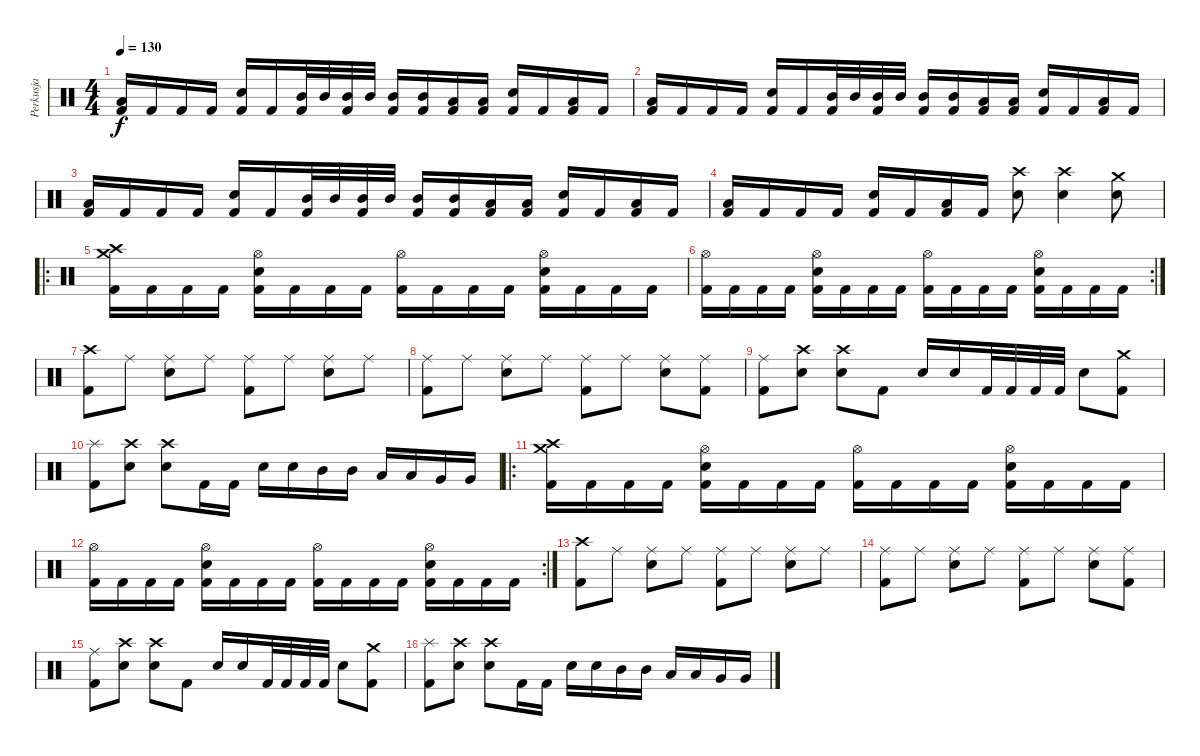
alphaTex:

\track ("Perkusja" "Perkusja") {instrument percussion}
\staff {score}
\articulation defaults
\ts (4 4)
\tempo 130
\clef neutral
\ks c
("Kick (hit) 2" "Low Floor Tom (hit)").16{dy f} "Kick (hit) 2".16 "Kick (hit) 2".16 "Kick (hit) 2".16 ("Kick (hit) 2" "Snare (hit) 2").16 "Kick (hit) 2".16 ("Kick (hit) 2" "Mid Tom (hit)").32 "Mid Tom (hit)".32 ("Kick (hit) 2" "Mid Tom (hit)").32 "Mid Tom (hit)".32 ("Kick (hit) 2" "Mid Tom (hit)").16 ("Kick (hit) 2" "Mid Tom (hit)").16 ("Kick (hit) 2" "Low Tom (hit)").16 ("Kick (hit) 2" "Low Tom (hit)").16 ("Kick (hit) 2" "Snare (hit) 2").16 "Kick (hit) 2".16 ("Kick (hit) 2" "Low Floor Tom (hit)").16 "Kick (hit) 2".16 |
("Kick (hit) 2" "Low Floor Tom (hit)").16 "Kick (hit) 2".16 "Kick (hit) 2".16 "Kick (hit) 2".16 ("Kick (hit) 2" "Snare (hit) 2").16 "Kick (hit) 2".16 ("Kick (hit) 2" "Mid Tom (hit)").32 "Mid Tom (hit)".32 ("Kick (hit) 2" "Mid Tom (hit)").32 "Mid Tom (hit)".32 ("Kick (hit) 2" "Mid Tom (hit)").16 ("Kick (hit) 2" "Mid Tom (hit)").16 ("Kick (hit) 2" "Low Tom (hit)").16 ("Kick (hit) 2" "Low Tom (hit)").16 ("Kick (hit) 2" "Snare (hit) 2").16 "Kick (hit) 2".16 ("Kick (hit) 2" "Low Floor Tom (hit)").16 "Kick (hit) 2".16 |
("Kick (hit) 2" "Low Floor Tom (hit)").16 "Kick (hit) 2".16 "Kick (hit) 2".16 "Kick (hit) 2".16 ("Kick (hit) 2" "Snare (hit) 2").16 "Kick (hit) 2".16 ("Kick (hit) 2" "Mid Tom (hit)").32 "Mid Tom (hit)".32 ("Kick (hit) 2" "Mid Tom (hit)").32 "Mid Tom (hit)".32 ("Kick (hit) 2" "Mid Tom (hit)").16 ("Kick (hit) 2" "Mid Tom (hit)").16 ("Kick (hit) 2" "Low Tom (hit)").16 ("Kick (hit) 2" "Low Tom (hit)").16 ("Kick (hit) 2" "Snare (hit) 2").16 "Kick (hit) 2".16 ("Kick (hit) 2" "Low Floor Tom (hit)").16 "Kick (hit) 2".16 |
("Kick (hit) 2" "Low Floor Tom (hit)").16 "Kick (hit) 2".16 "Kick (hit) 2".16 "Kick (hit) 2".16 ("Kick (hit) 2" "Snare (hit) 2").16 "Kick (hit) 2".16 ("Kick (hit) 2" "Low Floor Tom (hit)").16 "Kick (hit) 2".16 ("Crash high (hit)" "Snare (hit) 2").8 ("Crash high (hit)" "Snare (hit) 2").4 ("Crash medium (hit)" "Snare (hit) 2").8 |
\ro
("Kick (hit) 2" "Crash high (hit)" "Crash medium (hit)").16 "Kick (hit) 2".16 "Kick (hit) 2".16 "Kick (hit) 2".16 ("Kick (hit) 2" "Snare (hit) 2" "Hi-Hat (open)").16 "Kick (hit) 2".16 "Kick (hit) 2".16 "Kick (hit) 2".16 ("Kick (hit) 2" "Hi-Hat (open)").16 "Kick (hit) 2".16 "Kick (hit) 2".16 "Kick (hit) 2".16 ("Kick (hit) 2" "Snare (hit) 2" "Hi-Hat (open)").16 "Kick (hit) 2".16 "Kick (hit) 2".16 "Kick (hit) 2".16 |
\rc 2
("Kick (hit) 2" "Hi-Hat (open)").16 "Kick (hit) 2".16 "Kick (hit) 2".16 "Kick (hit) 2".16 ("Kick (hit) 2" "Snare (hit) 2" "Hi-Hat (open)").16 "Kick (hit) 2".16 "Kick (hit) 2".16 "Kick (hit) 2".16 ("Kick (hit) 2" "Hi-Hat (open)").16 "Kick (hit) 2".16 "Kick (hit) 2".16 "Kick (hit) 2".16 ("Kick (hit) 2" "Snare (hit) 2" "Hi-Hat (open)").16 "Kick (hit) 2".16 "Kick (hit) 2".16 "Kick (hit) 2".16 |
("Kick (hit) 2" "Crash high (hit)").8 "Ride (middle)".8 ("Snare (hit) 2" "Ride (middle)").8 "Ride (middle)".8 ("Kick (hit) 2" "Ride (middle)").8 "Ride (middle)".8 ("Snare (hit) 2" "Ride (middle)").8 "Ride (middle)".8 |
("Kick (hit) 2" "Ride (middle)").8 "Ride (middle)".8 ("Snare (hit) 2" "Ride (middle)").8 "Ride (middle)".8 ("Kick (hit) 2" "Ride (middle)").8 "Ride (middle)".8 ("Snare (hit) 2" "Ride (middle)").8 ("Kick (hit) 2" "Ride (middle)").8 |
("Ride (middle)" "Kick (hit) 2").8 ("Snare (hit) 2" "Crash high (hit)").8 ("Snare (hit) 2" "Crash high (hit)").8 "Kick (hit) 2".8 "Snare (hit) 2".16 "Snare (hit) 2".16 "Kick (hit) 2".32 "Kick (hit) 2".32 "Kick (hit) 2".32 "Kick (hit) 2".32 "Snare (hit) 2".8 ("Crash medium (hit)" "Kick (hit) 2").8 |
("Kick (hit) 2" "Splash (hit)").8 ("Snare (hit) 2" "Crash high (hit)").8 ("Snare (hit) 2" "Crash high (hit)").8 "Kick (hit) 2".16 "Kick (hit) 2".16 "Snare (hit) 2".16 "Snare (hit) 2".16 "Mid Tom (hit)".16 "Mid Tom (hit)".16 "Low Tom (hit)".16 "Low Tom (hit)".16 "Very Low Tom (hit)".16 "Very Low Tom (hit)".16 |
\ro
("Kick (hit) 2" "Crash high (hit)" "Crash medium (hit)").16 "Kick (hit) 2".16 "Kick (hit) 2".16 "Kick (hit) 2".16 ("Kick (hit) 2" "Snare (hit) 2" "Hi-Hat (open)").16 "Kick (hit) 2".16 "Kick (hit) 2".16 "Kick (hit) 2".16 ("Kick (hit) 2" "Hi-Hat (open)").16 "Kick (hit) 2".16 "Kick (hit) 2".16 "Kick (hit) 2".16 ("Kick (hit) 2" "Snare (hit) 2" "Hi-Hat (open)").16 "Kick (hit) 2".16 "Kick (hit) 2".16 "Kick (hit) 2".16 |
\rc 2
("Kick (hit) 2" "Hi-Hat (open)").16 "Kick (hit) 2".16 "Kick (hit) 2".16 "Kick (hit) 2".16 ("Kick (hit) 2" "Snare (hit) 2" "Hi-Hat (open)").16 "Kick (hit) 2".16 "Kick (hit) 2".16 "Kick (hit) 2".16 ("Kick (hit) 2" "Hi-Hat (open)").16 "Kick (hit) 2".16 "Kick (hit) 2".16 "Kick (hit) 2".16 ("Kick (hit) 2" "Snare (hit) 2" "Hi-Hat (open)").16 "Kick (hit) 2".16 "Kick (hit) 2".16 "Kick (hit) 2".16 |
("Kick (hit) 2" "Crash high (hit)").8 "Ride (middle)".8 ("Snare (hit) 2" "Ride (middle)").8 "Ride (middle)".8 ("Kick (hit) 2" "Ride (middle)").8 "Ride (middle)".8 ("Snare (hit) 2" "Ride (middle)").8 "Ride (middle)".8 |
("Kick (hit) 2" "Ride (middle)").8 "Ride (middle)".8 ("Snare (hit) 2" "Ride (middle)").8 "Ride (middle)".8 ("Kick (hit) 2" "Ride (middle)").8 "Ride (middle)".8 ("Snare (hit) 2" "Ride (middle)").8 ("Kick (hit) 2" "Ride (middle)").8 |
("Ride (middle)" "Kick (hit) 2").8 ("Snare (hit) 2" "Crash high (hit)").8 ("Snare (hit) 2" "Crash high (hit)").8 "Kick (hit) 2".8 "Snare (hit) 2".16 "Snare (hit) 2".16 "Kick (hit) 2".32 "Kick (hit) 2".32 "Kick (hit) 2".32 "Kick (hit) 2".32 "Snare (hit) 2".8 ("Crash medium (hit)" "Kick (hit) 2").8 |
("Kick (hit) 2" "Splash (hit)").8 ("Snare (hit) 2" "Crash high (hit)").8 ("Snare (hit) 2" "Crash high (hit)").8 "Kick (hit) 2".16 "Kick (hit) 2".16 "Snare (hit) 2".16 "Snare (hit) 2".16 "Mid Tom (hit)".16 "Mid Tom (hit)".16 "Low Tom (hit)".16 "Low Tom (hit)".16 "Very Low Tom (hit)".16 "Very Low Tom (hit)".16
